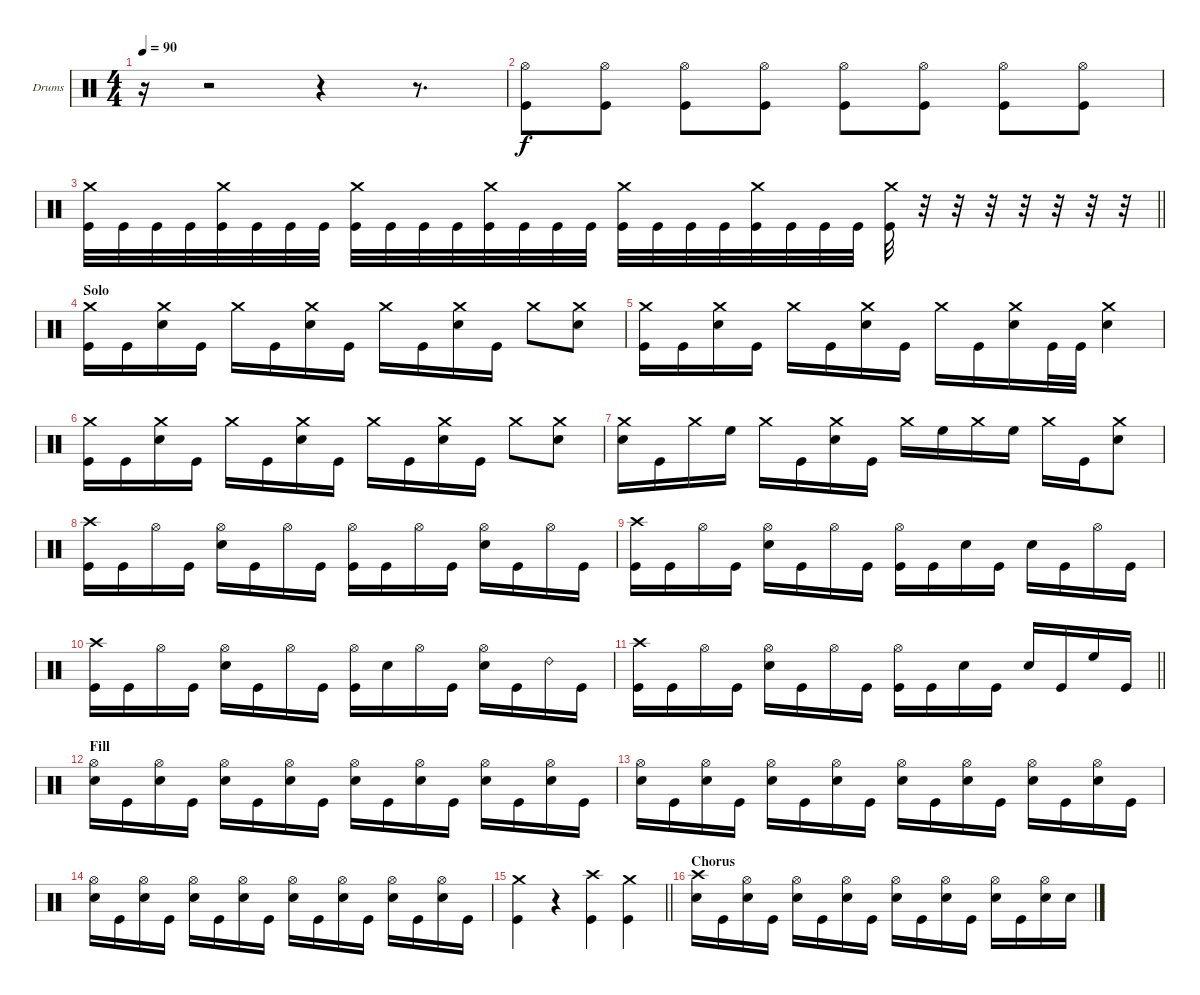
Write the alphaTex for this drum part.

\bracketExtendMode groupsimilarinstruments
\firstSystemTrackNameOrientation horizontal
\otherSystemsTrackNameOrientation horizontal
\track ("Drumkit" "Drums") {instrument percussion}
\staff {score}
\articulation defaults
\ts (4 4)
\tempo 90
\clef neutral
\ks c
r.16{dy f} r.2 r.4 r.8{d} |
("Hi-Hat (open)" "Kick (hit)").8 ("Hi-Hat (open)" "Kick (hit)").8 ("Hi-Hat (open)" "Kick (hit)").8 ("Hi-Hat (open)" "Kick (hit)").8 ("Hi-Hat (open)" "Kick (hit)").8 ("Hi-Hat (open)" "Kick (hit)").8 ("Hi-Hat (open)" "Kick (hit)").8 ("Hi-Hat (open)" "Kick (hit)").8 |
\barLineRight lightlight
("Crash medium (hit)" "Kick (hit)").32 "Kick (hit)".32 "Kick (hit)".32 "Kick (hit)".32 ("Crash medium (hit)" "Kick (hit)").32 "Kick (hit)".32 "Kick (hit)".32 "Kick (hit)".32 ("Crash medium (hit)" "Kick (hit)").32 "Kick (hit)".32 "Kick (hit)".32 "Kick (hit)".32 ("Crash medium (hit)" "Kick (hit)").32 "Kick (hit)".32 "Kick (hit)".32 "Kick (hit)".32 ("Crash medium (hit)" "Kick (hit)").32 "Kick (hit)".32 "Kick (hit)".32 "Kick (hit)".32 ("Crash medium (hit)" "Kick (hit)").32 "Kick (hit)".32 "Kick (hit)".32 "Kick (hit)".32 ("Crash medium (hit)" "Kick (hit)").32 r.32 r.32 r.32 r.32 r.32 r.32 r.32 |
\section ("" "Solo")
("Crash medium (hit)" "Kick (hit)").16 "Kick (hit)".16 ("Crash medium (hit)" "Snare (hit) 2").16 "Kick (hit)".16 "Crash medium (hit)".16 "Kick (hit)".16 ("Crash medium (hit)" "Snare (hit) 2").16 "Kick (hit)".16 "Crash medium (hit)".16 "Kick (hit)".16 ("Crash medium (hit)" "Snare (hit) 2").16 "Kick (hit)".16 "Crash medium (hit)".8 ("Crash medium (hit)" "Snare (hit) 2").8 |
("Crash medium (hit)" "Kick (hit)").16 "Kick (hit)".16 ("Crash medium (hit)" "Snare (hit) 2").16 "Kick (hit)".16 "Crash medium (hit)".16 "Kick (hit)".16 ("Crash medium (hit)" "Snare (hit) 2").16 "Kick (hit)".16 "Crash medium (hit)".16 "Kick (hit)".16 ("Crash medium (hit)" "Snare (hit) 2").16 "Kick (hit)".32 "Kick (hit)".32 ("Crash medium (hit)" "Snare (hit) 2").4 |
("Crash medium (hit)" "Kick (hit)").16 "Kick (hit)".16 ("Crash medium (hit)" "Snare (hit) 2").16 "Kick (hit)".16 "Crash medium (hit)".16 "Kick (hit)".16 ("Crash medium (hit)" "Snare (hit) 2").16 "Kick (hit)".16 "Crash medium (hit)".16 "Kick (hit)".16 ("Crash medium (hit)" "Snare (hit) 2").16 "Kick (hit)".16 "Crash medium (hit)".8 ("Crash medium (hit)" "Snare (hit) 2").8 |
("Crash medium (hit)" "Snare (hit) 2").16 "Kick (hit)".16 "Crash medium (hit)".16 "High Floor Tom (hit)".16 "Crash medium (hit)".16 "Kick (hit)".16 ("Crash medium (hit)" "Snare (hit) 2").16 "Kick (hit)".16 "Crash medium (hit)".16 "High Floor Tom (hit)".16 "Crash medium (hit)".16 "High Floor Tom (hit)".16 "Crash medium (hit)".16 "Kick (hit)".16 ("Crash medium (hit)" "Snare (hit) 2").8 |
("Crash high (hit)" "Kick (hit)").16 "Kick (hit)".16 "Hi-Hat (open)".16 "Kick (hit)".16 ("Hi-Hat (open)" "Snare (hit) 2").16 "Kick (hit)".16 "Hi-Hat (open)".16 "Kick (hit)".16 ("Hi-Hat (open)" "Kick (hit)").16 "Kick (hit)".16 "Hi-Hat (open)".16 "Kick (hit)".16 ("Hi-Hat (open)" "Snare (hit) 2").16 "Kick (hit)".16 "Hi-Hat (open)".16 "Kick (hit)".16 |
("Crash high (hit)" "Kick (hit)").16 "Kick (hit)".16 "Hi-Hat (open)".16 "Kick (hit)".16 ("Hi-Hat (open)" "Snare (hit) 2").16 "Kick (hit)".16 "Hi-Hat (open)".16 "Kick (hit)".16 ("Hi-Hat (open)" "Kick (hit)").16 "Kick (hit)".16 "Snare (hit) 2".16 "Kick (hit)".16 "Snare (hit) 2".16 "Kick (hit)".16 "Hi-Hat (open)".16 "Kick (hit)".16 |
("Crash high (hit)" "Kick (hit)").16 "Kick (hit)".16 "Hi-Hat (open)".16 "Kick (hit)".16 ("Hi-Hat (open)" "Snare (hit) 2").16 "Kick (hit)".16 "Hi-Hat (open)".16 "Kick (hit)".16 ("Hi-Hat (open)" "Kick (hit)").16 "Snare (hit) 2".16 "Hi-Hat (open)".16 "Kick (hit)".16 ("Hi-Hat (open)" "Snare (hit) 2").16 "Kick (hit)".16 "Ride (bell) 2".16 "Kick (hit)".16 |
\barLineRight lightlight
("Crash high (hit)" "Kick (hit)").16 "Kick (hit)".16 "Hi-Hat (open)".16 "Kick (hit)".16 ("Hi-Hat (open)" "Snare (hit) 2").16 "Kick (hit)".16 "Hi-Hat (open)".16 "Kick (hit)".16 ("Hi-Hat (open)" "Kick (hit)").16 "Kick (hit)".16 "Snare (hit) 2".16 "Kick (hit)".16 "Snare (hit) 2".16 "Kick (hit)".16 "High Floor Tom (hit)".16 "Kick (hit)".16 |
\section ("" "Fill")
("Hi-Hat (open)" "Snare (hit) 2").16 "Kick (hit)".16 ("Hi-Hat (open)" "Snare (hit) 2").16 "Kick (hit)".16 ("Hi-Hat (open)" "Snare (hit) 2").16 "Kick (hit)".16 ("Hi-Hat (open)" "Snare (hit) 2").16 "Kick (hit)".16 ("Hi-Hat (open)" "Snare (hit) 2").16 "Kick (hit)".16 ("Hi-Hat (open)" "Snare (hit) 2").16 "Kick (hit)".16 ("Hi-Hat (open)" "Snare (hit) 2").16 "Kick (hit)".16 ("Hi-Hat (open)" "Snare (hit) 2").16 "Kick (hit)".16 |
("Hi-Hat (open)" "Snare (hit) 2").16 "Kick (hit)".16 ("Hi-Hat (open)" "Snare (hit) 2").16 "Kick (hit)".16 ("Hi-Hat (open)" "Snare (hit) 2").16 "Kick (hit)".16 ("Hi-Hat (open)" "Snare (hit) 2").16 "Kick (hit)".16 ("Hi-Hat (open)" "Snare (hit) 2").16 "Kick (hit)".16 ("Hi-Hat (open)" "Snare (hit) 2").16 "Kick (hit)".16 ("Hi-Hat (open)" "Snare (hit) 2").16 "Kick (hit)".16 ("Hi-Hat (open)" "Snare (hit) 2").16 "Kick (hit)".16 |
("Hi-Hat (open)" "Snare (hit) 2").16 "Kick (hit)".16 ("Hi-Hat (open)" "Snare (hit) 2").16 "Kick (hit)".16 ("Hi-Hat (open)" "Snare (hit) 2").16 "Kick (hit)".16 ("Hi-Hat (open)" "Snare (hit) 2").16 "Kick (hit)".16 ("Hi-Hat (open)" "Snare (hit) 2").16 "Kick (hit)".16 ("Hi-Hat (open)" "Snare (hit) 2").16 "Kick (hit)".16 ("Hi-Hat (open)" "Snare (hit) 2").16 "Kick (hit)".16 ("Hi-Hat (open)" "Snare (hit) 2").16 "Kick (hit)".16 |
\barLineRight lightlight
("Crash medium (hit)" "Kick (hit)").4 r.4 ("Crash high (hit)" "Kick (hit)").4 ("Crash medium (hit)" "Kick (hit)").4 |
\section ("" "Chorus")
("Crash high (hit)" "Snare (hit) 2").16 "Kick (hit)".16 ("Hi-Hat (open)" "Snare (hit) 2").16 "Kick (hit)".16 ("Hi-Hat (open)" "Snare (hit) 2").16 "Kick (hit)".16 ("Hi-Hat (open)" "Snare (hit) 2").16 "Kick (hit)".16 ("Hi-Hat (open)" "Snare (hit) 2").16 "Kick (hit)".16 ("Hi-Hat (open)" "Snare (hit) 2").16 "Kick (hit)".16 ("Hi-Hat (open)" "Snare (hit) 2").16 "Kick (hit)".16 ("Hi-Hat (open)" "Snare (hit) 2").16 "Snare (hit) 2".16
